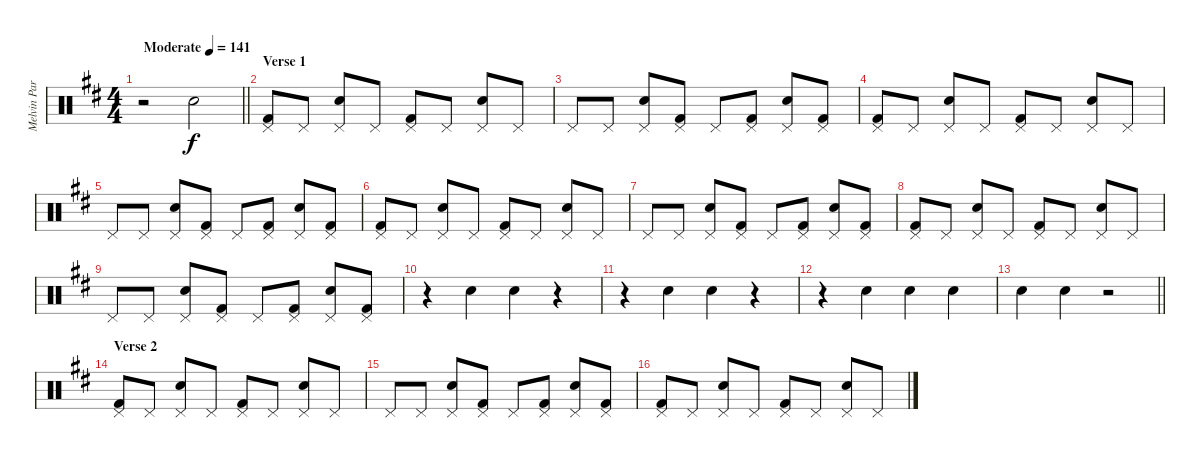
\track ("Melvin Parker - Drums " "Melvin Par") {instrument percussion}
\staff {score}
\articulation defaults
\ts (4 4)
\tempo (141 "Moderate")
\clef neutral
\barLineRight lightlight
\ks d
r.2{dy f} "Electric Snare (hit)".2 |
\section ("" "Verse 1")
("Pedal Hi-Hat (hit)" "Kick (hit) 2").8 "Pedal Hi-Hat (hit)".8 ("Pedal Hi-Hat (hit)" "Electric Snare (hit)").8 "Pedal Hi-Hat (hit)".8 ("Pedal Hi-Hat (hit)" "Kick (hit) 2").8 "Pedal Hi-Hat (hit)".8 ("Pedal Hi-Hat (hit)" "Electric Snare (hit)").8 "Pedal Hi-Hat (hit)".8 |
"Pedal Hi-Hat (hit)".8 "Pedal Hi-Hat (hit)".8 ("Pedal Hi-Hat (hit)" "Electric Snare (hit)").8 ("Pedal Hi-Hat (hit)" "Kick (hit) 2").8 "Pedal Hi-Hat (hit)".8 ("Pedal Hi-Hat (hit)" "Kick (hit) 2").8 ("Pedal Hi-Hat (hit)" "Electric Snare (hit)").8 ("Pedal Hi-Hat (hit)" "Kick (hit) 2").8 |
("Pedal Hi-Hat (hit)" "Kick (hit) 2").8 "Pedal Hi-Hat (hit)".8 ("Pedal Hi-Hat (hit)" "Electric Snare (hit)").8 "Pedal Hi-Hat (hit)".8 ("Pedal Hi-Hat (hit)" "Kick (hit) 2").8 "Pedal Hi-Hat (hit)".8 ("Pedal Hi-Hat (hit)" "Electric Snare (hit)").8 "Pedal Hi-Hat (hit)".8 |
"Pedal Hi-Hat (hit)".8 "Pedal Hi-Hat (hit)".8 ("Pedal Hi-Hat (hit)" "Electric Snare (hit)").8 ("Pedal Hi-Hat (hit)" "Kick (hit) 2").8 "Pedal Hi-Hat (hit)".8 ("Pedal Hi-Hat (hit)" "Kick (hit) 2").8 ("Pedal Hi-Hat (hit)" "Electric Snare (hit)").8 ("Pedal Hi-Hat (hit)" "Kick (hit) 2").8 |
("Pedal Hi-Hat (hit)" "Kick (hit) 2").8 "Pedal Hi-Hat (hit)".8 ("Pedal Hi-Hat (hit)" "Electric Snare (hit)").8 "Pedal Hi-Hat (hit)".8 ("Pedal Hi-Hat (hit)" "Kick (hit) 2").8 "Pedal Hi-Hat (hit)".8 ("Pedal Hi-Hat (hit)" "Electric Snare (hit)").8 "Pedal Hi-Hat (hit)".8 |
"Pedal Hi-Hat (hit)".8 "Pedal Hi-Hat (hit)".8 ("Pedal Hi-Hat (hit)" "Electric Snare (hit)").8 ("Pedal Hi-Hat (hit)" "Kick (hit) 2").8 "Pedal Hi-Hat (hit)".8 ("Pedal Hi-Hat (hit)" "Kick (hit) 2").8 ("Pedal Hi-Hat (hit)" "Electric Snare (hit)").8 ("Pedal Hi-Hat (hit)" "Kick (hit) 2").8 |
("Pedal Hi-Hat (hit)" "Kick (hit) 2").8 "Pedal Hi-Hat (hit)".8 ("Pedal Hi-Hat (hit)" "Electric Snare (hit)").8 "Pedal Hi-Hat (hit)".8 ("Pedal Hi-Hat (hit)" "Kick (hit) 2").8 "Pedal Hi-Hat (hit)".8 ("Pedal Hi-Hat (hit)" "Electric Snare (hit)").8 "Pedal Hi-Hat (hit)".8 |
"Pedal Hi-Hat (hit)".8 "Pedal Hi-Hat (hit)".8 ("Pedal Hi-Hat (hit)" "Electric Snare (hit)").8 ("Pedal Hi-Hat (hit)" "Kick (hit) 2").8 "Pedal Hi-Hat (hit)".8 ("Pedal Hi-Hat (hit)" "Kick (hit) 2").8 ("Pedal Hi-Hat (hit)" "Electric Snare (hit)").8 ("Pedal Hi-Hat (hit)" "Kick (hit) 2").8 |
r.4 "Electric Snare (hit)".4 "Electric Snare (hit)".4 r.4 |
r.4 "Electric Snare (hit)".4 "Electric Snare (hit)".4 r.4 |
r.4 "Electric Snare (hit)".4 "Electric Snare (hit)".4 "Electric Snare (hit)".4 |
\barLineRight lightlight "Electric Snare (hit)".4 "Electric Snare (hit)".4
r.2 |
\section ("" "Verse 2")
("Pedal Hi-Hat (hit)" "Kick (hit) 2").8 "Pedal Hi-Hat (hit)".8 ("Pedal Hi-Hat (hit)" "Electric Snare (hit)").8 "Pedal Hi-Hat (hit)".8 ("Pedal Hi-Hat (hit)" "Kick (hit) 2").8 "Pedal Hi-Hat (hit)".8 ("Pedal Hi-Hat (hit)" "Electric Snare (hit)").8 "Pedal Hi-Hat (hit)".8 |
"Pedal Hi-Hat (hit)".8 "Pedal Hi-Hat (hit)".8 ("Pedal Hi-Hat (hit)" "Electric Snare (hit)").8 ("Pedal Hi-Hat (hit)" "Kick (hit) 2").8 "Pedal Hi-Hat (hit)".8 ("Pedal Hi-Hat (hit)" "Kick (hit) 2").8 ("Pedal Hi-Hat (hit)" "Electric Snare (hit)").8 ("Pedal Hi-Hat (hit)" "Kick (hit) 2").8 |
("Pedal Hi-Hat (hit)" "Kick (hit) 2").8 "Pedal Hi-Hat (hit)".8 ("Pedal Hi-Hat (hit)" "Electric Snare (hit)").8 "Pedal Hi-Hat (hit)".8 ("Pedal Hi-Hat (hit)" "Kick (hit) 2").8 "Pedal Hi-Hat (hit)".8 ("Pedal Hi-Hat (hit)" "Electric Snare (hit)").8 "Pedal Hi-Hat (hit)".8
